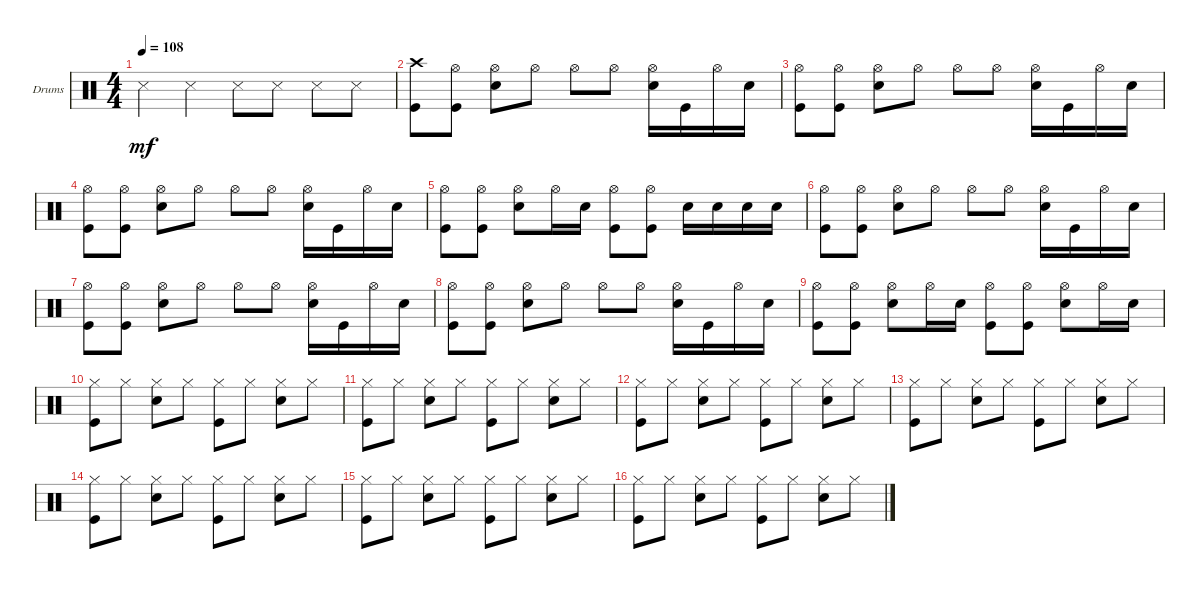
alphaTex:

\defaultSystemsLayout 4
\bracketExtendMode groupsimilarinstruments
\firstSystemTrackNameOrientation horizontal
\otherSystemsTrackNameOrientation horizontal
\track ("Drumkit" "Drums") {instrument percussion}
\staff {score}
\articulation defaults
\ts (4 4)
\tempo 108
\clef neutral
\scale
0.472222
\ks c "Snare (side stick) 3".4{dy mf} "Snare (side stick) 3".4 "Snare (side stick) 3".8 "Snare (side stick) 3".8 "Snare (side stick) 3".8 "Snare (side stick) 3".8
|
\scale
0.263889 ("Kick (hit)" "Crash high (hit)").8 ("Kick (hit)" "Hi-Hat (open)").8 ("Snare (hit) 2" "Hi-Hat (open)").8 "Hi-Hat (open)".8 "Hi-Hat (open)".8 "Hi-Hat (open)".8 ("Snare (hit) 2" "Hi-Hat (open)").16 "Kick (hit)".16 "Hi-Hat (open)".16 "Snare (hit) 2".16 |
\scale
0.263889 ("Kick (hit)" "Hi-Hat (open)").8 ("Kick (hit)" "Hi-Hat (open)").8 ("Snare (hit) 2" "Hi-Hat (open)").8 "Hi-Hat (open)".8 "Hi-Hat (open)".8 "Hi-Hat (open)".8 ("Snare (hit) 2" "Hi-Hat (open)").16 "Kick (hit)".16 "Hi-Hat (open)".16 "Snare (hit) 2".16 |
\scale
0.333333 ("Kick (hit)" "Hi-Hat (open)").8 ("Kick (hit)" "Hi-Hat (open)").8 ("Snare (hit) 2" "Hi-Hat (open)").8 "Hi-Hat (open)".8 "Hi-Hat (open)".8 "Hi-Hat (open)".8 ("Snare (hit) 2" "Hi-Hat (open)").16 "Kick (hit)".16 "Hi-Hat (open)".16 "Snare (hit) 2".16 |
\scale
0.333333 ("Kick (hit)" "Hi-Hat (open)").8 ("Kick (hit)" "Hi-Hat (open)").8 ("Snare (hit) 2" "Hi-Hat (open)").8 "Hi-Hat (open)".16 "Snare (hit) 2".16 ("Kick (hit)" "Hi-Hat (open)").8 ("Kick (hit)" "Hi-Hat (open)").8 "Snare (hit) 2".16 "Snare (hit) 2".16 "Snare (hit) 2".16 "Snare (hit) 2".16 |
\scale
0.333333 ("Kick (hit)" "Hi-Hat (open)").8 ("Kick (hit)" "Hi-Hat (open)").8 ("Snare (hit) 2" "Hi-Hat (open)").8 "Hi-Hat (open)".8 "Hi-Hat (open)".8 "Hi-Hat (open)".8 ("Snare (hit) 2" "Hi-Hat (open)").16 "Kick (hit)".16 "Hi-Hat (open)".16 "Snare (hit) 2".16 |
("Kick (hit)" "Hi-Hat (open)").8 ("Kick (hit)" "Hi-Hat (open)").8 ("Snare (hit) 2" "Hi-Hat (open)").8 "Hi-Hat (open)".8 "Hi-Hat (open)".8 "Hi-Hat (open)".8 ("Snare (hit) 2" "Hi-Hat (open)").16 "Kick (hit)".16 "Hi-Hat (open)".16 "Snare (hit) 2".16 |
("Kick (hit)" "Hi-Hat (open)").8 ("Kick (hit)" "Hi-Hat (open)").8 ("Snare (hit) 2" "Hi-Hat (open)").8 "Hi-Hat (open)".8 "Hi-Hat (open)".8 "Hi-Hat (open)".8 ("Snare (hit) 2" "Hi-Hat (open)").16 "Kick (hit)".16 "Hi-Hat (open)".16 "Snare (hit) 2".16 |
("Kick (hit)" "Hi-Hat (open)").8 ("Kick (hit)" "Hi-Hat (open)").8 ("Snare (hit) 2" "Hi-Hat (open)").8 "Hi-Hat (open)".16 "Snare (hit) 2".16 ("Kick (hit)" "Hi-Hat (open)").8 ("Kick (hit)" "Hi-Hat (open)").8 ("Snare (hit) 2" "Hi-Hat (open)").8 "Hi-Hat (open)".16 "Snare (hit) 2".16 |
("Hi-Hat (closed)" "Kick (hit)").8 "Hi-Hat (closed)".8 ("Hi-Hat (closed)" "Snare (hit) 2").8 "Hi-Hat (closed)".8 ("Hi-Hat (closed)" "Kick (hit)").8 "Hi-Hat (closed)".8 ("Hi-Hat (closed)" "Snare (hit) 2").8 "Hi-Hat (closed)".8 |
("Hi-Hat (closed)" "Kick (hit)").8 "Hi-Hat (closed)".8 ("Hi-Hat (closed)" "Snare (hit) 2").8 "Hi-Hat (closed)".8 ("Hi-Hat (closed)" "Kick (hit)").8 "Hi-Hat (closed)".8 ("Hi-Hat (closed)" "Snare (hit) 2").8 "Hi-Hat (closed)".8 |
("Hi-Hat (closed)" "Kick (hit)").8 "Hi-Hat (closed)".8 ("Hi-Hat (closed)" "Snare (hit) 2").8 "Hi-Hat (closed)".8 ("Hi-Hat (closed)" "Kick (hit)").8 "Hi-Hat (closed)".8 ("Hi-Hat (closed)" "Snare (hit) 2").8 "Hi-Hat (closed)".8 |
("Hi-Hat (closed)" "Kick (hit)").8 "Hi-Hat (closed)".8 ("Hi-Hat (closed)" "Snare (hit) 2").8 "Hi-Hat (closed)".8 ("Hi-Hat (closed)" "Kick (hit)").8 "Hi-Hat (closed)".8 ("Hi-Hat (closed)" "Snare (hit) 2").8 "Hi-Hat (closed)".8 |
("Hi-Hat (closed)" "Kick (hit)").8 "Hi-Hat (closed)".8 ("Hi-Hat (closed)" "Snare (hit) 2").8 "Hi-Hat (closed)".8 ("Hi-Hat (closed)" "Kick (hit)").8 "Hi-Hat (closed)".8 ("Hi-Hat (closed)" "Snare (hit) 2").8 "Hi-Hat (closed)".8 |
("Hi-Hat (closed)" "Kick (hit)").8 "Hi-Hat (closed)".8 ("Hi-Hat (closed)" "Snare (hit) 2").8 "Hi-Hat (closed)".8 ("Hi-Hat (closed)" "Kick (hit)").8 "Hi-Hat (closed)".8 ("Hi-Hat (closed)" "Snare (hit) 2").8 "Hi-Hat (closed)".8 |
("Hi-Hat (closed)" "Kick (hit)").8 "Hi-Hat (closed)".8 ("Hi-Hat (closed)" "Snare (hit) 2").8 "Hi-Hat (closed)".8 ("Hi-Hat (closed)" "Kick (hit)").8 "Hi-Hat (closed)".8 ("Hi-Hat (closed)" "Snare (hit) 2").8 "Hi-Hat (closed)".8
